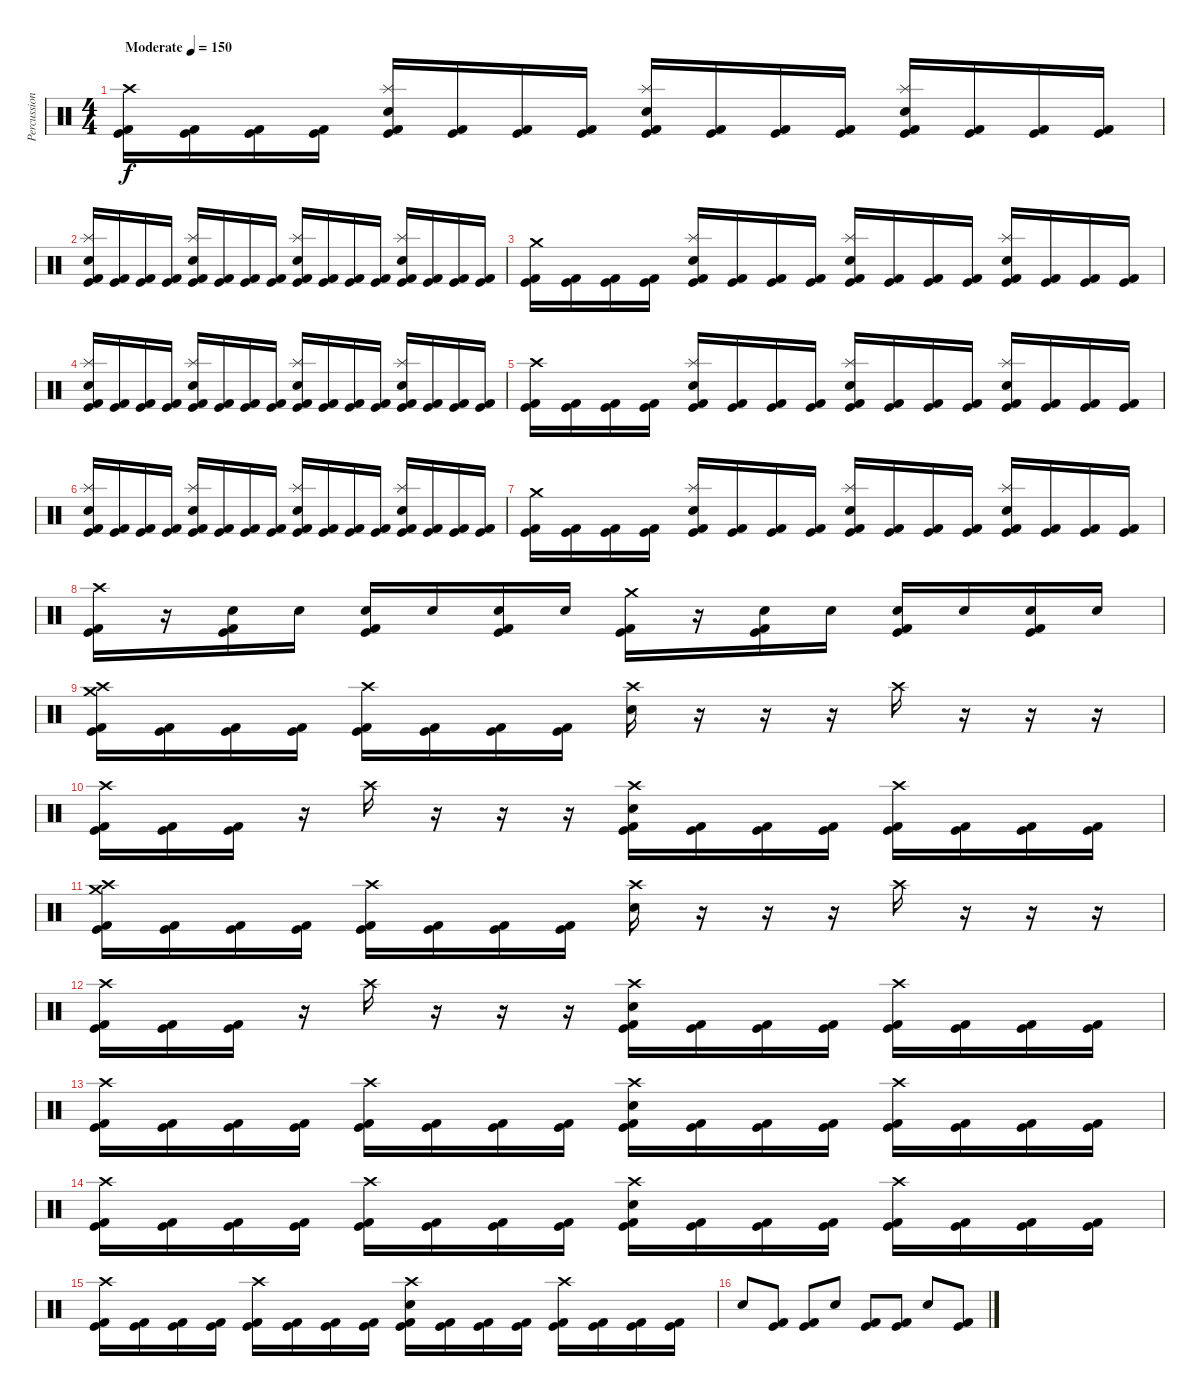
\track ("Percussion" "Percussion") {instrument percussion}
\staff {score}
\articulation defaults
\ts (4 4)
\tempo (150 "Moderate")
\clef neutral
\ks c
("Crash high (hit)" "Kick (hit) 2" "Kick (hit)").16{dy f} ("Kick (hit) 2" "Kick (hit)").16 ("Kick (hit) 2" "Kick (hit)").16 ("Kick (hit) 2" "Kick (hit)").16 ("Splash (hit)" "Snare (hit) 2" "Kick (hit) 2" "Kick (hit)").16 ("Kick (hit) 2" "Kick (hit)").16 ("Kick (hit) 2" "Kick (hit)").16 ("Kick (hit) 2" "Kick (hit)").16 ("Splash (hit)" "Snare (hit) 2" "Kick (hit) 2" "Kick (hit)").16 ("Kick (hit) 2" "Kick (hit)").16 ("Kick (hit) 2" "Kick (hit)").16 ("Kick (hit) 2" "Kick (hit)").16 ("Splash (hit)" "Snare (hit) 2" "Kick (hit) 2" "Kick (hit)").16 ("Kick (hit) 2" "Kick (hit)").16 ("Kick (hit) 2" "Kick (hit)").16 ("Kick (hit) 2" "Kick (hit)").16 |
("Splash (hit)" "Snare (hit) 2" "Kick (hit) 2" "Kick (hit)").16 ("Kick (hit) 2" "Kick (hit)").16 ("Kick (hit) 2" "Kick (hit)").16 ("Kick (hit) 2" "Kick (hit)").16 ("Splash (hit)" "Snare (hit) 2" "Kick (hit) 2" "Kick (hit)").16 ("Kick (hit) 2" "Kick (hit)").16 ("Kick (hit) 2" "Kick (hit)").16 ("Kick (hit) 2" "Kick (hit)").16 ("Splash (hit)" "Snare (hit) 2" "Kick (hit) 2" "Kick (hit)").16 ("Kick (hit) 2" "Kick (hit)").16 ("Kick (hit) 2" "Kick (hit)").16 ("Kick (hit) 2" "Kick (hit)").16 ("Splash (hit)" "Snare (hit) 2" "Kick (hit) 2" "Kick (hit)").16 ("Kick (hit) 2" "Kick (hit)").16 ("Kick (hit) 2" "Kick (hit)").16 ("Kick (hit) 2" "Kick (hit)").16 |
("Crash medium (hit)" "Kick (hit) 2" "Kick (hit)").16 ("Kick (hit) 2" "Kick (hit)").16 ("Kick (hit) 2" "Kick (hit)").16 ("Kick (hit) 2" "Kick (hit)").16 ("Splash (hit)" "Snare (hit) 2" "Kick (hit) 2" "Kick (hit)").16 ("Kick (hit) 2" "Kick (hit)").16 ("Kick (hit) 2" "Kick (hit)").16 ("Kick (hit) 2" "Kick (hit)").16 ("Splash (hit)" "Snare (hit) 2" "Kick (hit) 2" "Kick (hit)").16 ("Kick (hit) 2" "Kick (hit)").16 ("Kick (hit) 2" "Kick (hit)").16 ("Kick (hit) 2" "Kick (hit)").16 ("Splash (hit)" "Snare (hit) 2" "Kick (hit) 2" "Kick (hit)").16 ("Kick (hit) 2" "Kick (hit)").16 ("Kick (hit) 2" "Kick (hit)").16 ("Kick (hit) 2" "Kick (hit)").16 |
("Splash (hit)" "Snare (hit) 2" "Kick (hit) 2" "Kick (hit)").16 ("Kick (hit) 2" "Kick (hit)").16 ("Kick (hit) 2" "Kick (hit)").16 ("Kick (hit) 2" "Kick (hit)").16 ("Splash (hit)" "Snare (hit) 2" "Kick (hit) 2" "Kick (hit)").16 ("Kick (hit) 2" "Kick (hit)").16 ("Kick (hit) 2" "Kick (hit)").16 ("Kick (hit) 2" "Kick (hit)").16 ("Splash (hit)" "Snare (hit) 2" "Kick (hit) 2" "Kick (hit)").16 ("Kick (hit) 2" "Kick (hit)").16 ("Kick (hit) 2" "Kick (hit)").16 ("Kick (hit) 2" "Kick (hit)").16 ("Splash (hit)" "Snare (hit) 2" "Kick (hit) 2" "Kick (hit)").16 ("Kick (hit) 2" "Kick (hit)").16 ("Kick (hit) 2" "Kick (hit)").16 ("Kick (hit) 2" "Kick (hit)").16 |
("Crash high (hit)" "Kick (hit) 2" "Kick (hit)").16 ("Kick (hit) 2" "Kick (hit)").16 ("Kick (hit) 2" "Kick (hit)").16 ("Kick (hit) 2" "Kick (hit)").16 ("Splash (hit)" "Snare (hit) 2" "Kick (hit) 2" "Kick (hit)").16 ("Kick (hit) 2" "Kick (hit)").16 ("Kick (hit) 2" "Kick (hit)").16 ("Kick (hit) 2" "Kick (hit)").16 ("Splash (hit)" "Snare (hit) 2" "Kick (hit) 2" "Kick (hit)").16 ("Kick (hit) 2" "Kick (hit)").16 ("Kick (hit) 2" "Kick (hit)").16 ("Kick (hit) 2" "Kick (hit)").16 ("Splash (hit)" "Snare (hit) 2" "Kick (hit) 2" "Kick (hit)").16 ("Kick (hit) 2" "Kick (hit)").16 ("Kick (hit) 2" "Kick (hit)").16 ("Kick (hit) 2" "Kick (hit)").16 |
("Splash (hit)" "Snare (hit) 2" "Kick (hit) 2" "Kick (hit)").16 ("Kick (hit) 2" "Kick (hit)").16 ("Kick (hit) 2" "Kick (hit)").16 ("Kick (hit) 2" "Kick (hit)").16 ("Splash (hit)" "Snare (hit) 2" "Kick (hit) 2" "Kick (hit)").16 ("Kick (hit) 2" "Kick (hit)").16 ("Kick (hit) 2" "Kick (hit)").16 ("Kick (hit) 2" "Kick (hit)").16 ("Splash (hit)" "Snare (hit) 2" "Kick (hit) 2" "Kick (hit)").16 ("Kick (hit) 2" "Kick (hit)").16 ("Kick (hit) 2" "Kick (hit)").16 ("Kick (hit) 2" "Kick (hit)").16 ("Splash (hit)" "Snare (hit) 2" "Kick (hit) 2" "Kick (hit)").16 ("Kick (hit) 2" "Kick (hit)").16 ("Kick (hit) 2" "Kick (hit)").16 ("Kick (hit) 2" "Kick (hit)").16 |
("Crash medium (hit)" "Kick (hit) 2" "Kick (hit)").16 ("Kick (hit) 2" "Kick (hit)").16 ("Kick (hit) 2" "Kick (hit)").16 ("Kick (hit) 2" "Kick (hit)").16 ("Splash (hit)" "Snare (hit) 2" "Kick (hit) 2" "Kick (hit)").16 ("Kick (hit) 2" "Kick (hit)").16 ("Kick (hit) 2" "Kick (hit)").16 ("Kick (hit) 2" "Kick (hit)").16 ("Splash (hit)" "Snare (hit) 2" "Kick (hit) 2" "Kick (hit)").16 ("Kick (hit) 2" "Kick (hit)").16 ("Kick (hit) 2" "Kick (hit)").16 ("Kick (hit) 2" "Kick (hit)").16 ("Splash (hit)" "Snare (hit) 2" "Kick (hit) 2" "Kick (hit)").16 ("Kick (hit) 2" "Kick (hit)").16 ("Kick (hit) 2" "Kick (hit)").16 ("Kick (hit) 2" "Kick (hit)").16 |
("Crash high (hit)" "Kick (hit) 2" "Kick (hit)").16 r.16 ("Snare (hit) 2" "Kick (hit) 2" "Kick (hit)").16 "Snare (hit) 2".16 ("Snare (hit) 2" "Kick (hit) 2" "Kick (hit)").16 "Snare (hit) 2".16 ("Snare (hit) 2" "Kick (hit) 2" "Kick (hit)").16 "Snare (hit) 2".16 ("Crash medium (hit)" "Kick (hit) 2" "Kick (hit)").16 r.16 ("Snare (hit) 2" "Kick (hit) 2" "Kick (hit)").16 "Snare (hit) 2".16 ("Snare (hit) 2" "Kick (hit) 2" "Kick (hit)").16 "Snare (hit) 2".16 ("Snare (hit) 2" "Kick (hit) 2" "Kick (hit)").16 "Snare (hit) 2".16 |
("Crash medium (hit)" "Crash high (hit)" "Kick (hit) 2" "Kick (hit)").16 ("Kick (hit) 2" "Kick (hit)").16 ("Kick (hit) 2" "Kick (hit)").16 ("Kick (hit) 2" "Kick (hit)").16 ("Crash high (hit)" "Kick (hit) 2" "Kick (hit)").16 ("Kick (hit) 2" "Kick (hit)").16 ("Kick (hit) 2" "Kick (hit)").16 ("Kick (hit) 2" "Kick (hit)").16 ("Crash high (hit)" "Snare (hit) 2").16 r.16 r.16 r.16 "Crash high (hit)".16 r.16 r.16 r.16 |
("Crash high (hit)" "Kick (hit) 2" "Kick (hit)").16 ("Kick (hit) 2" "Kick (hit)").16 ("Kick (hit) 2" "Kick (hit)").16 r.16 "Crash high (hit)".16 r.16 r.16 r.16 ("Crash high (hit)" "Snare (hit) 2" "Kick (hit) 2" "Kick (hit)").16 ("Kick (hit) 2" "Kick (hit)").16 ("Kick (hit) 2" "Kick (hit)").16 ("Kick (hit) 2" "Kick (hit)").16 ("Crash high (hit)" "Kick (hit) 2" "Kick (hit)").16 ("Kick (hit) 2" "Kick (hit)").16 ("Kick (hit) 2" "Kick (hit)").16 ("Kick (hit) 2" "Kick (hit)").16 |
("Crash medium (hit)" "Crash high (hit)" "Kick (hit) 2" "Kick (hit)").16 ("Kick (hit) 2" "Kick (hit)").16 ("Kick (hit) 2" "Kick (hit)").16 ("Kick (hit) 2" "Kick (hit)").16 ("Crash high (hit)" "Kick (hit) 2" "Kick (hit)").16 ("Kick (hit) 2" "Kick (hit)").16 ("Kick (hit) 2" "Kick (hit)").16 ("Kick (hit) 2" "Kick (hit)").16 ("Crash high (hit)" "Snare (hit) 2").16 r.16 r.16 r.16 "Crash high (hit)".16 r.16 r.16 r.16 |
("Crash high (hit)" "Kick (hit) 2" "Kick (hit)").16 ("Kick (hit) 2" "Kick (hit)").16 ("Kick (hit) 2" "Kick (hit)").16 r.16 "Crash high (hit)".16 r.16 r.16 r.16 ("Crash high (hit)" "Snare (hit) 2" "Kick (hit) 2" "Kick (hit)").16 ("Kick (hit) 2" "Kick (hit)").16 ("Kick (hit) 2" "Kick (hit)").16 ("Kick (hit) 2" "Kick (hit)").16 ("Crash high (hit)" "Kick (hit) 2" "Kick (hit)").16 ("Kick (hit) 2" "Kick (hit)").16 ("Kick (hit) 2" "Kick (hit)").16 ("Kick (hit) 2" "Kick (hit)").16 |
("Crash high (hit)" "Kick (hit) 2" "Kick (hit)").16 ("Kick (hit) 2" "Kick (hit)").16 ("Kick (hit) 2" "Kick (hit)").16 ("Kick (hit) 2" "Kick (hit)").16 ("Crash high (hit)" "Kick (hit) 2" "Kick (hit)").16 ("Kick (hit) 2" "Kick (hit)").16 ("Kick (hit) 2" "Kick (hit)").16 ("Kick (hit) 2" "Kick (hit)").16 ("Crash high (hit)" "Snare (hit) 2" "Kick (hit) 2" "Kick (hit)").16 ("Kick (hit) 2" "Kick (hit)").16 ("Kick (hit) 2" "Kick (hit)").16 ("Kick (hit) 2" "Kick (hit)").16 ("Crash high (hit)" "Kick (hit) 2" "Kick (hit)").16 ("Kick (hit) 2" "Kick (hit)").16 ("Kick (hit) 2" "Kick (hit)").16 ("Kick (hit) 2" "Kick (hit)").16 |
("Crash high (hit)" "Kick (hit) 2" "Kick (hit)").16 ("Kick (hit) 2" "Kick (hit)").16 ("Kick (hit) 2" "Kick (hit)").16 ("Kick (hit) 2" "Kick (hit)").16 ("Crash high (hit)" "Kick (hit) 2" "Kick (hit)").16 ("Kick (hit) 2" "Kick (hit)").16 ("Kick (hit) 2" "Kick (hit)").16 ("Kick (hit) 2" "Kick (hit)").16 ("Crash high (hit)" "Snare (hit) 2" "Kick (hit) 2" "Kick (hit)").16 ("Kick (hit) 2" "Kick (hit)").16 ("Kick (hit) 2" "Kick (hit)").16 ("Kick (hit) 2" "Kick (hit)").16 ("Crash high (hit)" "Kick (hit) 2" "Kick (hit)").16 ("Kick (hit) 2" "Kick (hit)").16 ("Kick (hit) 2" "Kick (hit)").16 ("Kick (hit) 2" "Kick (hit)").16 |
("Crash high (hit)" "Kick (hit) 2" "Kick (hit)").16 ("Kick (hit) 2" "Kick (hit)").16 ("Kick (hit) 2" "Kick (hit)").16 ("Kick (hit) 2" "Kick (hit)").16 ("Crash high (hit)" "Kick (hit) 2" "Kick (hit)").16 ("Kick (hit) 2" "Kick (hit)").16 ("Kick (hit) 2" "Kick (hit)").16 ("Kick (hit) 2" "Kick (hit)").16 ("Crash high (hit)" "Snare (hit) 2" "Kick (hit) 2" "Kick (hit)").16 ("Kick (hit) 2" "Kick (hit)").16 ("Kick (hit) 2" "Kick (hit)").16 ("Kick (hit) 2" "Kick (hit)").16 ("Crash high (hit)" "Kick (hit) 2" "Kick (hit)").16 ("Kick (hit) 2" "Kick (hit)").16 ("Kick (hit) 2" "Kick (hit)").16 ("Kick (hit) 2" "Kick (hit)").16 |
"Snare (hit) 2".8 ("Kick (hit) 2" "Kick (hit)").8 ("Kick (hit) 2" "Kick (hit)").8 "Snare (hit) 2".8 ("Kick (hit) 2" "Kick (hit)").8 ("Kick (hit) 2" "Kick (hit)").8 "Snare (hit) 2".8 ("Kick (hit) 2" "Kick (hit)").8
